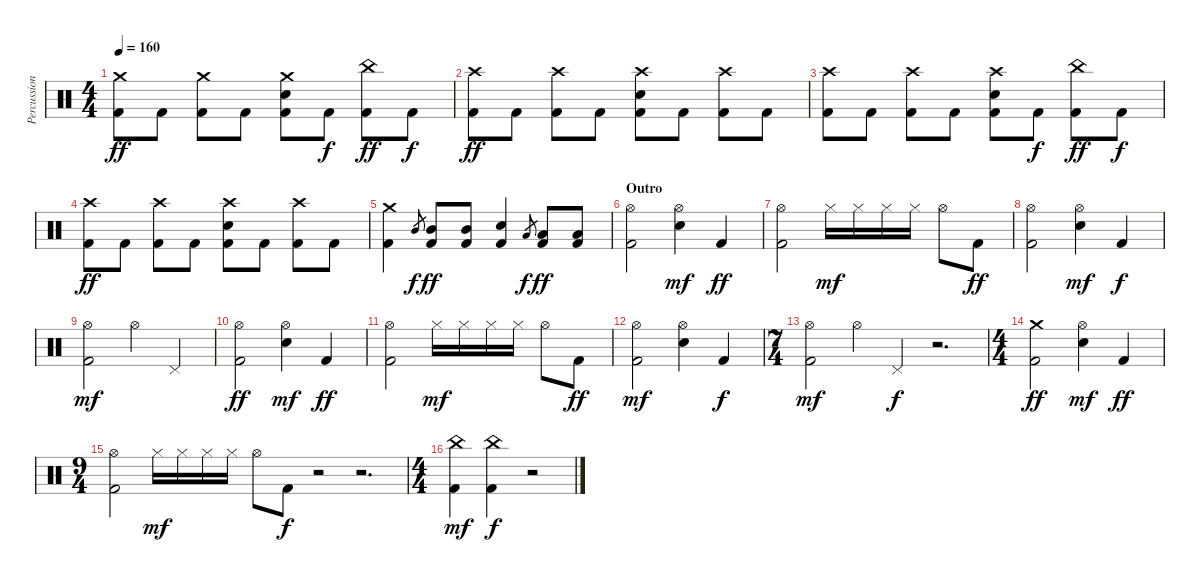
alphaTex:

\track ("Percussion" "Percussion") {instrument percussion}
\staff {score}
\articulation defaults
\ts (4 4)
\tempo 160
\clef neutral
\ks c
("Crash medium (hit)" "Kick (hit) 2").8{dy ff} "Kick (hit) 2".8 ("Crash medium (hit)" "Kick (hit) 2").8 "Kick (hit) 2".8 ("Crash medium (hit)" "Electric Snare (hit)" "Kick (hit) 2").8 "Kick (hit) 2".8{dy f} ("China (hit)" "Kick (hit) 2").8{dy ff} "Kick (hit) 2".8{dy f} |
("Crash high (hit)" "Kick (hit) 2").8{dy ff} "Kick (hit) 2".8 ("Crash high (hit)" "Kick (hit) 2").8 "Kick (hit) 2".8 ("Crash high (hit)" "Electric Snare (hit)" "Kick (hit) 2").8 "Kick (hit) 2".8 ("Crash high (hit)" "Kick (hit) 2").8 "Kick (hit) 2".8 |
("Crash high (hit)" "Kick (hit) 2").8 "Kick (hit) 2".8 ("Crash high (hit)" "Kick (hit) 2").8 "Kick (hit) 2".8 ("Crash high (hit)" "Electric Snare (hit)" "Kick (hit) 2").8 "Kick (hit) 2".8{dy f} ("China (hit)" "Kick (hit) 2").8{dy ff} "Kick (hit) 2".8{dy f} |
("Crash high (hit)" "Kick (hit) 2").8{dy ff} "Kick (hit) 2".8 ("Crash high (hit)" "Kick (hit) 2").8 "Kick (hit) 2".8 ("Crash high (hit)" "Electric Snare (hit)" "Kick (hit) 2").8 "Kick (hit) 2".8 ("Crash high (hit)" "Kick (hit) 2").8 "Kick (hit) 2".8 |
("Crash medium (hit)" "Kick (hit) 2").4 "Mid Tom (hit)".8{gr dy f} ("Mid Tom (hit)" "Kick (hit) 2").8{dy ff} ("Mid Tom (hit)" "Kick (hit) 2").8 ("Electric Snare (hit)" "Kick (hit) 2").4 "Low Tom (hit)".8{gr dy f} ("Low Tom (hit)" "Kick (hit) 2").8{dy ff} ("Low Tom (hit)" "Kick (hit) 2").8 |
\section ("" "Outro")
("Hi-Hat (open)" "Kick (hit) 2").2 ("Hi-Hat (open)" "Electric Snare (hit)").4{dy mf} "Kick (hit) 2".4{dy ff} |
("Hi-Hat (open)" "Kick (hit) 2").2 "Hi-Hat (closed)".16{dy mf} "Hi-Hat (closed)".16 "Hi-Hat (closed)".16 "Hi-Hat (closed)".16 "Hi-Hat (open)".8 "Kick (hit) 2".8{dy ff} |
("Hi-Hat (open)" "Kick (hit) 2").2 ("Hi-Hat (open)" "Electric Snare (hit)").4{dy mf} "Kick (hit) 2".4{dy f} |
("Hi-Hat (open)" "Kick (hit) 2").2{dy mf} "Hi-Hat (open)".4 "Pedal Hi-Hat (hit)".4 |
("Hi-Hat (open)" "Kick (hit) 2").2{dy ff} ("Hi-Hat (open)" "Electric Snare (hit)").4{dy mf} "Kick (hit) 2".4{dy ff} |
("Hi-Hat (open)" "Kick (hit) 2").2 "Hi-Hat (closed)".16{dy mf} "Hi-Hat (closed)".16 "Hi-Hat (closed)".16 "Hi-Hat (closed)".16 "Hi-Hat (open)".8 "Kick (hit) 2".8{dy ff} |
("Hi-Hat (open)" "Kick (hit) 2").2{dy mf} ("Hi-Hat (open)" "Electric Snare (hit)").4 "Kick (hit) 2".4{dy f} |
\ts (7 4)
("Hi-Hat (open)" "Kick (hit) 2").2{dy mf} "Hi-Hat (open)".4 "Pedal Hi-Hat (hit)".4{dy f} r.2{d} |
\ts (4 4)
("Crash medium (hit)" "Kick (hit) 2").2{dy ff} ("Hi-Hat (open)" "Electric Snare (hit)").4{dy mf} "Kick (hit) 2".4{dy ff} |
\ts (9 4)
("Hi-Hat (open)" "Kick (hit) 2").2 "Hi-Hat (closed)".16{dy mf} "Hi-Hat (closed)".16 "Hi-Hat (closed)".16 "Hi-Hat (closed)".16 "Hi-Hat (open)".8 "Kick (hit) 2".8{dy f} r.2 r.2{d} |
\ts (4 4)
("China (hit)" "Kick (hit) 2").4{dy mf} ("China (hit)" "Kick (hit) 2").4{dy f} r.2
